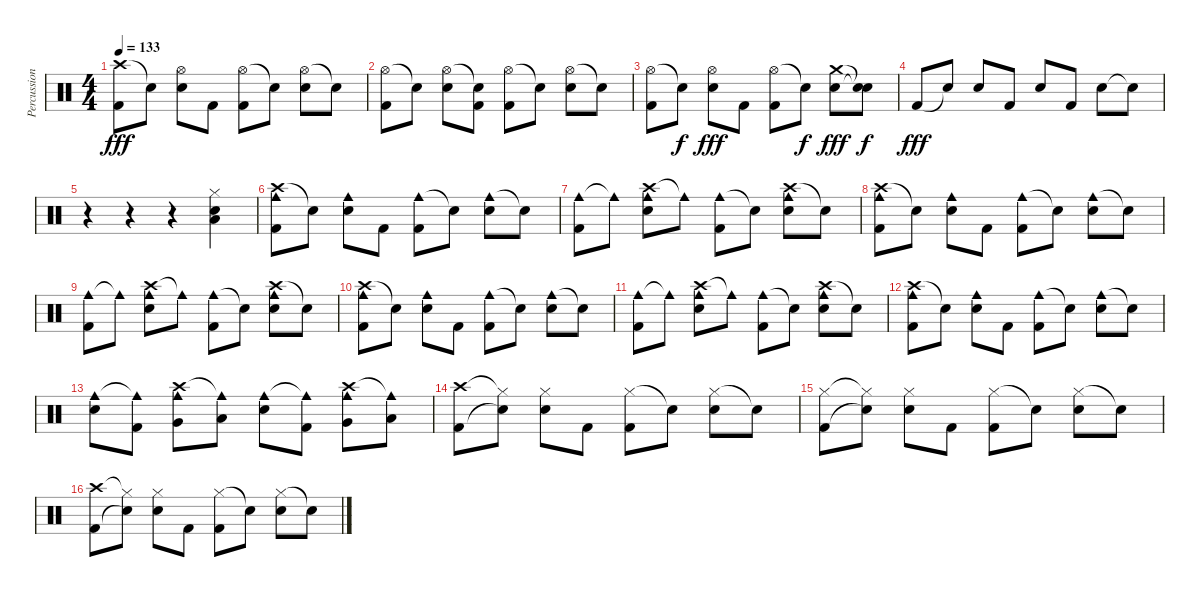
\track ("Percussion" "Percussion") {instrument percussion}
\staff {score}
\articulation defaults
\ts (4 4)
\tempo 133
\clef neutral
\ks c
("Crash high (hit)" "Kick (hit) 2").8{dy fff} "Snare (hit)"{t}.8 ("Hi-Hat (open)" "Electric Snare (hit)").8 "Kick (hit) 2".8 ("Hi-Hat (open)" "Kick (hit) 2").8 "Snare (hit)"{t}.8 ("Hi-Hat (open)" "Electric Snare (hit)").8 "Snare (hit)"{t}.8 |
("Hi-Hat (open)" "Kick (hit) 2").8 "Snare (hit)"{t}.8 ("Hi-Hat (open)" "Electric Snare (hit)").8 ("Snare (hit)"{t} "Kick (hit) 2").8 ("Hi-Hat (open)" "Kick (hit) 2").8 "Snare (hit)"{t}.8 ("Hi-Hat (open)" "Electric Snare (hit)").8 "Snare (hit)"{t}.8 |
("Hi-Hat (open)" "Kick (hit) 2").8 "Electric Snare (hit)"{t}.8{dy f} ("Hi-Hat (open)" "Electric Snare (hit)").8{dy fff} "Kick (hit) 2".8 ("Hi-Hat (open)" "Kick (hit) 2").8 "Snare (hit)"{t}.8{dy f} ("Crash medium (hit)" "Electric Snare (hit)").8{dy fff} ("Snare (hit)"{t} "Snare (hit)"{t}).8{dy f} |
"Kick (hit) 2".8{dy fff} "Snare (hit)"{t}.8 "Electric Snare (hit)".8 "Kick (hit) 2".8 "Electric Snare (hit)".8 "Kick (hit) 2".8 "Electric Snare (hit)".8 "Snare (hit)"{t}.8 |
r.4 r.4 r.4 ("Hi-Hat (closed)" "Low Floor Tom (hit)" "Electric Snare (hit)").4 |
("Crash high (hit)" "Cowbell medium (hit)" "Kick (hit) 2").8 "Snare (hit)"{t}.8 ("Cowbell medium (hit)" "Electric Snare (hit)").8 "Kick (hit) 2".8 ("Cowbell medium (hit)" "Kick (hit) 2").8 "Snare (hit)"{t}.8 ("Cowbell medium (hit)" "Electric Snare (hit)").8 "Snare (hit)"{t}.8 |
("Cowbell medium (hit)" "Kick (hit) 2").8 "Cowbell medium (hit)"{t}.8 ("Crash high (hit)" "Cowbell medium (hit)" "Electric Snare (hit)").8 "Cowbell medium (hit)"{t}.8 ("Cowbell medium (hit)" "Kick (hit) 2").8 "Snare (hit)"{t}.8 ("Crash high (hit)" "Cowbell medium (hit)" "Electric Snare (hit)").8 "Snare (hit)"{t}.8 |
("Crash high (hit)" "Cowbell medium (hit)" "Kick (hit) 2").8 "Snare (hit)"{t}.8 ("Cowbell medium (hit)" "Electric Snare (hit)").8 "Kick (hit) 2".8 ("Cowbell medium (hit)" "Kick (hit) 2").8 "Snare (hit)"{t}.8 ("Cowbell medium (hit)" "Electric Snare (hit)").8 "Snare (hit)"{t}.8 |
("Cowbell medium (hit)" "Kick (hit) 2").8 "Cowbell medium (hit)"{t}.8 ("Crash high (hit)" "Cowbell medium (hit)" "Electric Snare (hit)").8 "Cowbell medium (hit)"{t}.8 ("Cowbell medium (hit)" "Kick (hit) 2").8 "Snare (hit)"{t}.8 ("Crash high (hit)" "Cowbell medium (hit)" "Electric Snare (hit)").8 "Snare (hit)"{t}.8 |
("Crash high (hit)" "Cowbell medium (hit)" "Kick (hit) 2").8 "Snare (hit)"{t}.8 ("Cowbell medium (hit)" "Electric Snare (hit)").8 "Kick (hit) 2".8 ("Cowbell medium (hit)" "Kick (hit) 2").8 "Snare (hit)"{t}.8 ("Cowbell medium (hit)" "Electric Snare (hit)").8 "Snare (hit)"{t}.8 |
("Cowbell medium (hit)" "Kick (hit) 2").8 "Cowbell medium (hit)"{t}.8 ("Crash high (hit)" "Cowbell medium (hit)" "Electric Snare (hit)").8 "Cowbell medium (hit)"{t}.8 ("Cowbell medium (hit)" "Kick (hit) 2").8 "Snare (hit)"{t}.8 ("Crash high (hit)" "Cowbell medium (hit)" "Electric Snare (hit)").8 "Snare (hit)"{t}.8 |
("Crash high (hit)" "Cowbell medium (hit)" "Kick (hit) 2").8 "Snare (hit)"{t}.8 ("Cowbell medium (hit)" "Electric Snare (hit)").8 "Kick (hit) 2".8 ("Cowbell medium (hit)" "Kick (hit) 2").8 "Snare (hit)"{t}.8 ("Cowbell medium (hit)" "Electric Snare (hit)").8 "Snare (hit)"{t}.8 |
("Cowbell medium (hit)" "Electric Snare (hit)").8 ("Cowbell medium (hit)"{t} "Kick (hit) 2").8 ("Crash high (hit)" "Cowbell medium (hit)" "Very Low Tom (hit)").8 ("Cowbell medium (hit)"{t} "Low Floor Tom (hit)").8 ("Cowbell medium (hit)" "Electric Snare (hit)").8 ("Cowbell medium (hit)"{t} "Kick (hit) 2").8 ("Crash high (hit)" "Cowbell medium (hit)" "Very Low Tom (hit)").8 ("Cowbell medium (hit)"{t} "Low Floor Tom (hit)").8 |
("Crash high (hit)" "Kick (hit) 2").8 ("Hi-Hat (closed)"{t} "Snare (hit)"{t}).8 ("Hi-Hat (closed)" "Electric Snare (hit)").8 "Kick (hit) 2".8 ("Hi-Hat (closed)" "Kick (hit) 2").8 "Snare (hit)"{t}.8 ("Hi-Hat (closed)" "Electric Snare (hit)").8 "Snare (hit)"{t}.8 |
("Hi-Hat (closed)" "Kick (hit) 2").8 ("Hi-Hat (closed)"{t} "Snare (hit)"{t}).8 ("Hi-Hat (closed)" "Electric Snare (hit)").8 "Kick (hit) 2".8 ("Hi-Hat (closed)" "Kick (hit) 2").8 "Snare (hit)"{t}.8 ("Hi-Hat (closed)" "Electric Snare (hit)").8 "Snare (hit)"{t}.8 |
("Crash high (hit)" "Kick (hit) 2").8 ("Hi-Hat (closed)"{t} "Snare (hit)"{t}).8 ("Hi-Hat (closed)" "Electric Snare (hit)").8 "Kick (hit) 2".8 ("Hi-Hat (closed)" "Kick (hit) 2").8 "Snare (hit)"{t}.8 ("Hi-Hat (closed)" "Electric Snare (hit)").8 "Snare (hit)"{t}.8
